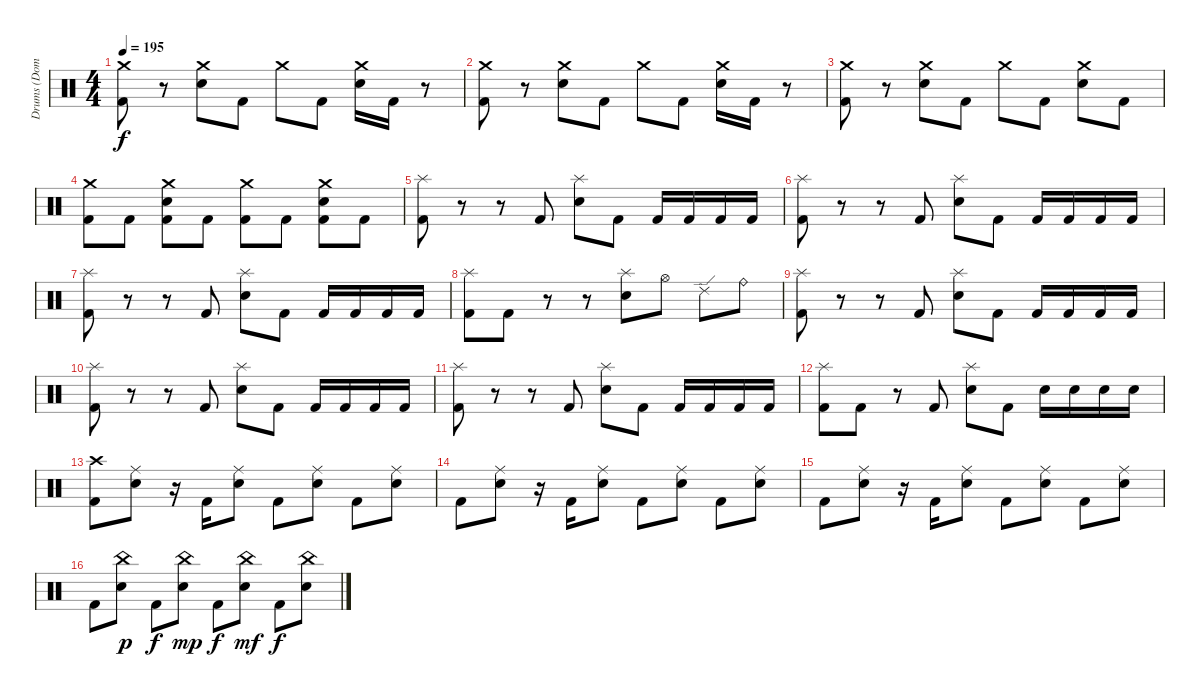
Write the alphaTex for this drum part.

\track ("Drums (Dominik)" "Drums (Dom") {instrument percussion}
\staff {score}
\articulation defaults
\ts (4 4)
\tempo 195
\clef neutral
\ks c
("Crash medium (hit)" "Kick (hit) 2").8{dy f} r.8 ("Crash medium (hit)" "Electric Snare (hit)").8 "Kick (hit) 2".8 "Crash medium (hit)".8 "Kick (hit) 2".8 ("Crash medium (hit)" "Electric Snare (hit)").16 "Kick (hit) 2".16 r.8 |
("Crash medium (hit)" "Kick (hit) 2").8 r.8 ("Crash medium (hit)" "Electric Snare (hit)").8 "Kick (hit) 2".8 "Crash medium (hit)".8 "Kick (hit) 2".8 ("Crash medium (hit)" "Electric Snare (hit)").16 "Kick (hit) 2".16 r.8 |
("Crash medium (hit)" "Kick (hit) 2").8 r.8 ("Crash medium (hit)" "Electric Snare (hit)").8 "Kick (hit) 2".8 "Crash medium (hit)".8 "Kick (hit) 2".8 ("Crash medium (hit)" "Electric Snare (hit)").8 "Kick (hit) 2".8 |
("Crash medium (hit)" "Kick (hit) 2").8 "Kick (hit) 2".8 ("Crash medium (hit)" "Electric Snare (hit)" "Kick (hit) 2").8 "Kick (hit) 2".8 ("Crash medium (hit)" "Kick (hit) 2").8 "Kick (hit) 2".8 ("Crash medium (hit)" "Electric Snare (hit)" "Kick (hit) 2").8 "Kick (hit) 2".8 |
("Splash (hit)" "Kick (hit) 2").8 r.8 r.8 "Kick (hit) 2".8 ("Splash (hit)" "Electric Snare (hit)").8 "Kick (hit) 2".8 "Kick (hit) 2".16 "Kick (hit) 2".16 "Kick (hit) 2".16 "Kick (hit) 2".16 |
("Splash (hit)" "Kick (hit) 2").8 r.8 r.8 "Kick (hit) 2".8 ("Splash (hit)" "Electric Snare (hit)").8 "Kick (hit) 2".8 "Kick (hit) 2".16 "Kick (hit) 2".16 "Kick (hit) 2".16 "Kick (hit) 2".16 |
("Splash (hit)" "Kick (hit) 2").8 r.8 r.8 "Kick (hit) 2".8 ("Splash (hit)" "Electric Snare (hit)").8 "Kick (hit) 2".8 "Kick (hit) 2".16 "Kick (hit) 2".16 "Kick (hit) 2".16 "Kick (hit) 2".16 |
("Splash (hit)" "Kick (hit) 2").8 "Kick (hit) 2".8 r.8 r.8 ("Splash (hit)" "Electric Snare (hit)").8 "Hi-Hat (open)".8 "Ride (edge) 2".8 "Ride (bell)".8 |
("Splash (hit)" "Kick (hit) 2").8 r.8 r.8 "Kick (hit) 2".8 ("Splash (hit)" "Electric Snare (hit)").8 "Kick (hit) 2".8 "Kick (hit) 2".16 "Kick (hit) 2".16 "Kick (hit) 2".16 "Kick (hit) 2".16 |
("Splash (hit)" "Kick (hit) 2").8 r.8 r.8 "Kick (hit) 2".8 ("Splash (hit)" "Electric Snare (hit)").8 "Kick (hit) 2".8 "Kick (hit) 2".16 "Kick (hit) 2".16 "Kick (hit) 2".16 "Kick (hit) 2".16 |
("Splash (hit)" "Kick (hit) 2").8 r.8 r.8 "Kick (hit) 2".8 ("Splash (hit)" "Electric Snare (hit)").8 "Kick (hit) 2".8 "Kick (hit) 2".16 "Kick (hit) 2".16 "Kick (hit) 2".16 "Kick (hit) 2".16 |
("Splash (hit)" "Kick (hit) 2").8 "Kick (hit) 2".8 r.8 "Kick (hit) 2".8 ("Splash (hit)" "Electric Snare (hit)").8 "Kick (hit) 2".8 "Electric Snare (hit)".16 "Electric Snare (hit)".16 "Electric Snare (hit)".16 "Electric Snare (hit)".16 |
("Crash high (hit)" "Kick (hit) 2").8 ("Ride (middle)" "Electric Snare (hit)").8 r.16 "Kick (hit) 2".16 ("Ride (middle)" "Electric Snare (hit)").8 "Kick (hit) 2".8 ("Ride (middle)" "Electric Snare (hit)").8 "Kick (hit) 2".8 ("Ride (middle)" "Electric Snare (hit)").8 |
"Kick (hit) 2".8 ("Ride (middle)" "Electric Snare (hit)").8 r.16 "Kick (hit) 2".16 ("Ride (middle)" "Electric Snare (hit)").8 "Kick (hit) 2".8 ("Ride (middle)" "Electric Snare (hit)").8 "Kick (hit) 2".8 ("Ride (middle)" "Electric Snare (hit)").8 |
"Kick (hit) 2".8 ("Ride (middle)" "Electric Snare (hit)").8 r.16 "Kick (hit) 2".16 ("Ride (middle)" "Electric Snare (hit)").8 "Kick (hit) 2".8 ("Ride (middle)" "Electric Snare (hit)").8 "Kick (hit) 2".8 ("Ride (middle)" "Electric Snare (hit)").8 |
"Kick (hit) 2".8 ("China (hit)" "Electric Snare (hit)").8{dy p} "Kick (hit) 2".8{dy f} ("China (hit)" "Electric Snare (hit)").8{dy mp} "Kick (hit) 2".8{dy f} ("China (hit)" "Electric Snare (hit)").8{dy mf} "Kick (hit) 2".8{dy f} ("China (hit)" "Electric Snare (hit)").8
